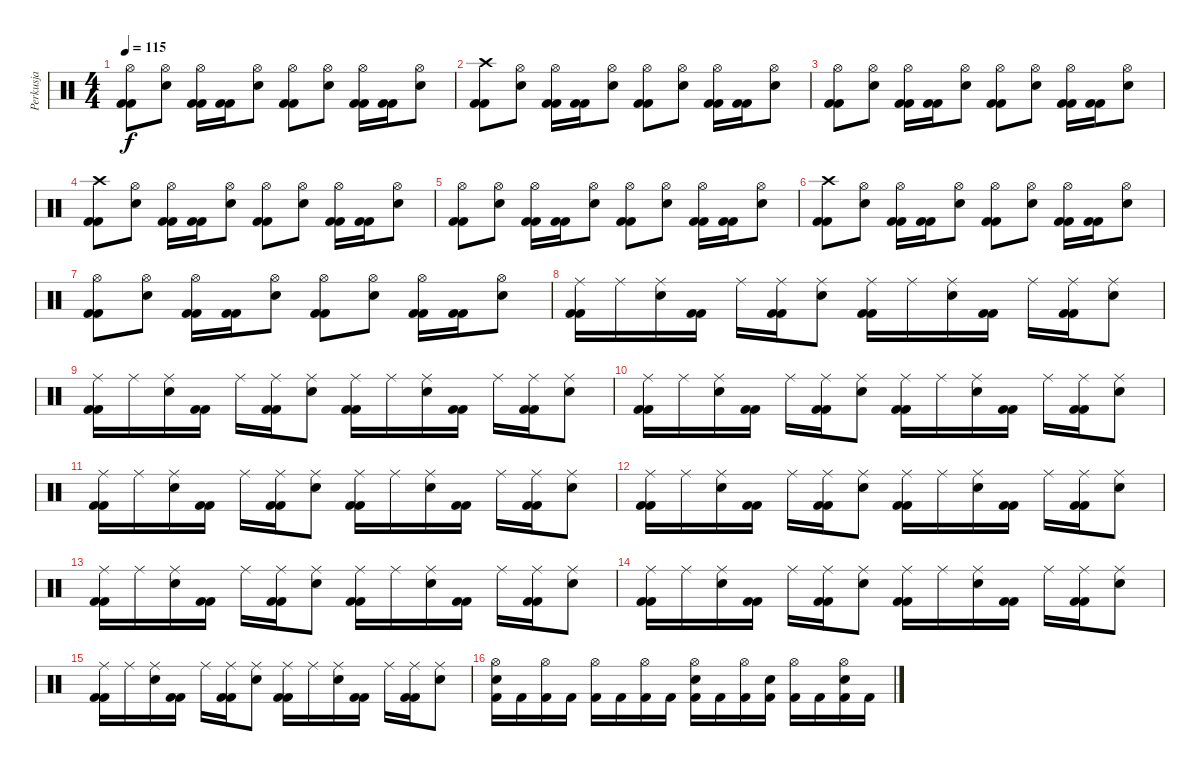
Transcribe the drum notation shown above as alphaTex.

\track ("Perkusja" "Perkusja") {instrument percussion}
\staff {score}
\articulation defaults
\ts (4 4)
\tempo 115
\clef neutral
\ks c
("Hi-Hat (open)" "Kick (hit) 2" "Kick (hit) 2").8{dy f} ("Hi-Hat (open)" "Electric Snare (hit)").8 ("Hi-Hat (open)" "Kick (hit) 2" "Kick (hit) 2").16 ("Kick (hit) 2" "Kick (hit) 2").16 ("Hi-Hat (open)" "Electric Snare (hit)").8 ("Hi-Hat (open)" "Kick (hit) 2" "Kick (hit) 2").8 ("Hi-Hat (open)" "Electric Snare (hit)").8 ("Hi-Hat (open)" "Kick (hit) 2" "Kick (hit) 2").16 ("Kick (hit) 2" "Kick (hit) 2").16 ("Hi-Hat (open)" "Electric Snare (hit)").8 |
("Crash high (hit)" "Kick (hit) 2" "Kick (hit) 2").8 ("Hi-Hat (open)" "Electric Snare (hit)").8 ("Hi-Hat (open)" "Kick (hit) 2" "Kick (hit) 2").16 ("Kick (hit) 2" "Kick (hit) 2").16 ("Hi-Hat (open)" "Electric Snare (hit)").8 ("Hi-Hat (open)" "Kick (hit) 2" "Kick (hit) 2").8 ("Hi-Hat (open)" "Electric Snare (hit)").8 ("Hi-Hat (open)" "Kick (hit) 2" "Kick (hit) 2").16 ("Kick (hit) 2" "Kick (hit) 2").16 ("Hi-Hat (open)" "Electric Snare (hit)").8 |
("Hi-Hat (open)" "Kick (hit) 2" "Kick (hit) 2").8 ("Hi-Hat (open)" "Electric Snare (hit)").8 ("Hi-Hat (open)" "Kick (hit) 2" "Kick (hit) 2").16 ("Kick (hit) 2" "Kick (hit) 2").16 ("Hi-Hat (open)" "Electric Snare (hit)").8 ("Hi-Hat (open)" "Kick (hit) 2" "Kick (hit) 2").8 ("Hi-Hat (open)" "Electric Snare (hit)").8 ("Hi-Hat (open)" "Kick (hit) 2" "Kick (hit) 2").16 ("Kick (hit) 2" "Kick (hit) 2").16 ("Hi-Hat (open)" "Electric Snare (hit)").8 |
("Crash high (hit)" "Kick (hit) 2" "Kick (hit) 2").8 ("Hi-Hat (open)" "Electric Snare (hit)").8 ("Hi-Hat (open)" "Kick (hit) 2" "Kick (hit) 2").16 ("Kick (hit) 2" "Kick (hit) 2").16 ("Hi-Hat (open)" "Electric Snare (hit)").8 ("Hi-Hat (open)" "Kick (hit) 2" "Kick (hit) 2").8 ("Hi-Hat (open)" "Electric Snare (hit)").8 ("Hi-Hat (open)" "Kick (hit) 2" "Kick (hit) 2").16 ("Kick (hit) 2" "Kick (hit) 2").16 ("Hi-Hat (open)" "Electric Snare (hit)").8 |
("Hi-Hat (open)" "Kick (hit) 2" "Kick (hit) 2").8 ("Hi-Hat (open)" "Electric Snare (hit)").8 ("Hi-Hat (open)" "Kick (hit) 2" "Kick (hit) 2").16 ("Kick (hit) 2" "Kick (hit) 2").16 ("Hi-Hat (open)" "Electric Snare (hit)").8 ("Hi-Hat (open)" "Kick (hit) 2" "Kick (hit) 2").8 ("Hi-Hat (open)" "Electric Snare (hit)").8 ("Hi-Hat (open)" "Kick (hit) 2" "Kick (hit) 2").16 ("Kick (hit) 2" "Kick (hit) 2").16 ("Hi-Hat (open)" "Electric Snare (hit)").8 |
("Crash high (hit)" "Kick (hit) 2" "Kick (hit) 2").8 ("Hi-Hat (open)" "Electric Snare (hit)").8 ("Hi-Hat (open)" "Kick (hit) 2" "Kick (hit) 2").16 ("Kick (hit) 2" "Kick (hit) 2").16 ("Hi-Hat (open)" "Electric Snare (hit)").8 ("Hi-Hat (open)" "Kick (hit) 2" "Kick (hit) 2").8 ("Hi-Hat (open)" "Electric Snare (hit)").8 ("Hi-Hat (open)" "Kick (hit) 2" "Kick (hit) 2").16 ("Kick (hit) 2" "Kick (hit) 2").16 ("Hi-Hat (open)" "Electric Snare (hit)").8 |
("Hi-Hat (open)" "Kick (hit) 2" "Kick (hit) 2").8 ("Hi-Hat (open)" "Electric Snare (hit)").8 ("Hi-Hat (open)" "Kick (hit) 2" "Kick (hit) 2").16 ("Kick (hit) 2" "Kick (hit) 2").16 ("Hi-Hat (open)" "Electric Snare (hit)").8 ("Hi-Hat (open)" "Kick (hit) 2" "Kick (hit) 2").8 ("Hi-Hat (open)" "Electric Snare (hit)").8 ("Hi-Hat (open)" "Kick (hit) 2" "Kick (hit) 2").16 ("Kick (hit) 2" "Kick (hit) 2").16 ("Hi-Hat (open)" "Electric Snare (hit)").8 |
("Ride (middle)" "Kick (hit) 2" "Kick (hit) 2").16 "Ride (middle)".16 ("Ride (middle)" "Electric Snare (hit)").16 ("Kick (hit) 2" "Kick (hit) 2").16 "Ride (middle)".16 ("Ride (middle)" "Kick (hit) 2" "Kick (hit) 2").16 ("Ride (middle)" "Electric Snare (hit)").8 ("Ride (middle)" "Kick (hit) 2" "Kick (hit) 2").16 "Ride (middle)".16 ("Ride (middle)" "Electric Snare (hit)").16 ("Kick (hit) 2" "Kick (hit) 2").16 "Ride (middle)".16 ("Ride (middle)" "Kick (hit) 2" "Kick (hit) 2").16 ("Ride (middle)" "Electric Snare (hit)").8 |
("Ride (middle)" "Kick (hit) 2" "Kick (hit) 2").16 "Ride (middle)".16 ("Ride (middle)" "Electric Snare (hit)").16 ("Kick (hit) 2" "Kick (hit) 2").16 "Ride (middle)".16 ("Ride (middle)" "Kick (hit) 2" "Kick (hit) 2").16 ("Ride (middle)" "Electric Snare (hit)").8 ("Ride (middle)" "Kick (hit) 2" "Kick (hit) 2").16 "Ride (middle)".16 ("Ride (middle)" "Electric Snare (hit)").16 ("Kick (hit) 2" "Kick (hit) 2").16 "Ride (middle)".16 ("Ride (middle)" "Kick (hit) 2" "Kick (hit) 2").16 ("Ride (middle)" "Electric Snare (hit)").8 |
("Ride (middle)" "Kick (hit) 2" "Kick (hit) 2").16 "Ride (middle)".16 ("Ride (middle)" "Electric Snare (hit)").16 ("Kick (hit) 2" "Kick (hit) 2").16 "Ride (middle)".16 ("Ride (middle)" "Kick (hit) 2" "Kick (hit) 2").16 ("Ride (middle)" "Electric Snare (hit)").8 ("Ride (middle)" "Kick (hit) 2" "Kick (hit) 2").16 "Ride (middle)".16 ("Ride (middle)" "Electric Snare (hit)").16 ("Kick (hit) 2" "Kick (hit) 2").16 "Ride (middle)".16 ("Ride (middle)" "Kick (hit) 2" "Kick (hit) 2").16 ("Ride (middle)" "Electric Snare (hit)").8 |
("Ride (middle)" "Kick (hit) 2" "Kick (hit) 2").16 "Ride (middle)".16 ("Ride (middle)" "Electric Snare (hit)").16 ("Kick (hit) 2" "Kick (hit) 2").16 "Ride (middle)".16 ("Ride (middle)" "Kick (hit) 2" "Kick (hit) 2").16 ("Ride (middle)" "Electric Snare (hit)").8 ("Ride (middle)" "Kick (hit) 2" "Kick (hit) 2").16 "Ride (middle)".16 ("Ride (middle)" "Electric Snare (hit)").16 ("Kick (hit) 2" "Kick (hit) 2").16 "Ride (middle)".16 ("Ride (middle)" "Kick (hit) 2" "Kick (hit) 2").16 ("Ride (middle)" "Electric Snare (hit)").8 |
("Ride (middle)" "Kick (hit) 2" "Kick (hit) 2").16 "Ride (middle)".16 ("Ride (middle)" "Electric Snare (hit)").16 ("Kick (hit) 2" "Kick (hit) 2").16 "Ride (middle)".16 ("Ride (middle)" "Kick (hit) 2" "Kick (hit) 2").16 ("Ride (middle)" "Electric Snare (hit)").8 ("Ride (middle)" "Kick (hit) 2" "Kick (hit) 2").16 "Ride (middle)".16 ("Ride (middle)" "Electric Snare (hit)").16 ("Kick (hit) 2" "Kick (hit) 2").16 "Ride (middle)".16 ("Ride (middle)" "Kick (hit) 2" "Kick (hit) 2").16 ("Ride (middle)" "Electric Snare (hit)").8 |
("Ride (middle)" "Kick (hit) 2" "Kick (hit) 2").16 "Ride (middle)".16 ("Ride (middle)" "Electric Snare (hit)").16 ("Kick (hit) 2" "Kick (hit) 2").16 "Ride (middle)".16 ("Ride (middle)" "Kick (hit) 2" "Kick (hit) 2").16 ("Ride (middle)" "Electric Snare (hit)").8 ("Ride (middle)" "Kick (hit) 2" "Kick (hit) 2").16 "Ride (middle)".16 ("Ride (middle)" "Electric Snare (hit)").16 ("Kick (hit) 2" "Kick (hit) 2").16 "Ride (middle)".16 ("Ride (middle)" "Kick (hit) 2" "Kick (hit) 2").16 ("Ride (middle)" "Electric Snare (hit)").8 |
("Ride (middle)" "Kick (hit) 2" "Kick (hit) 2").16 "Ride (middle)".16 ("Ride (middle)" "Electric Snare (hit)").16 ("Kick (hit) 2" "Kick (hit) 2").16 "Ride (middle)".16 ("Ride (middle)" "Kick (hit) 2" "Kick (hit) 2").16 ("Ride (middle)" "Electric Snare (hit)").8 ("Ride (middle)" "Kick (hit) 2" "Kick (hit) 2").16 "Ride (middle)".16 ("Ride (middle)" "Electric Snare (hit)").16 ("Kick (hit) 2" "Kick (hit) 2").16 "Ride (middle)".16 ("Ride (middle)" "Kick (hit) 2" "Kick (hit) 2").16 ("Ride (middle)" "Electric Snare (hit)").8 |
("Ride (middle)" "Kick (hit) 2" "Kick (hit) 2").16 "Ride (middle)".16 ("Ride (middle)" "Electric Snare (hit)").16 ("Kick (hit) 2" "Kick (hit) 2").16 "Ride (middle)".16 ("Ride (middle)" "Kick (hit) 2" "Kick (hit) 2").16 ("Ride (middle)" "Electric Snare (hit)").8 ("Ride (middle)" "Kick (hit) 2" "Kick (hit) 2").16 "Ride (middle)".16 ("Ride (middle)" "Electric Snare (hit)").16 ("Kick (hit) 2" "Kick (hit) 2").16 "Ride (middle)".16 ("Ride (middle)" "Kick (hit) 2" "Kick (hit) 2").16 ("Ride (middle)" "Electric Snare (hit)").8 |
("Hi-Hat (open)" "Electric Snare (hit)" "Kick (hit) 2").16 "Kick (hit) 2".16 ("Hi-Hat (open)" "Kick (hit) 2").16 "Kick (hit) 2".16 ("Hi-Hat (open)" "Kick (hit) 2").16 "Kick (hit) 2".16 ("Hi-Hat (open)" "Kick (hit) 2").16 "Kick (hit) 2".16 ("Hi-Hat (open)" "Electric Snare (hit)" "Kick (hit) 2").16 "Kick (hit) 2".16 ("Hi-Hat (open)" "Kick (hit) 2").16 ("Electric Snare (hit)" "Kick (hit) 2").16 ("Hi-Hat (open)" "Kick (hit) 2").16 "Kick (hit) 2".16 ("Hi-Hat (open)" "Electric Snare (hit)" "Kick (hit) 2").16 "Kick (hit) 2".16
